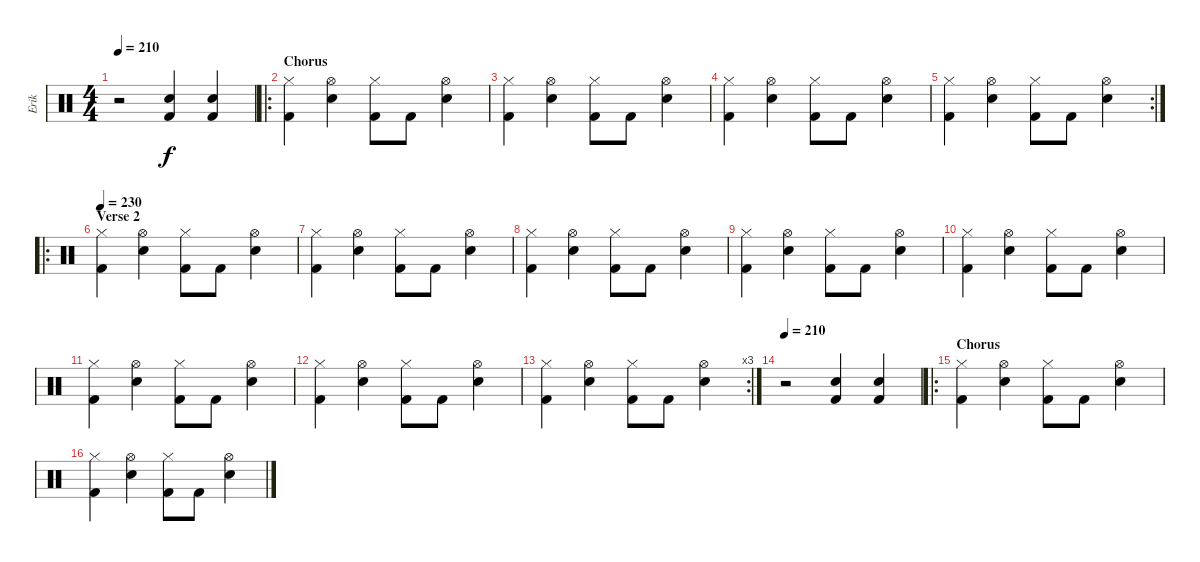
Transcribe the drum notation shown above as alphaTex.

\track ("Erik" "Erik") {instrument percussion}
\staff {score}
\articulation defaults
\ts (4 4)
\tempo 210
\clef neutral
\ks c
r.2{dy f} ("Snare (hit) 2" "Kick (hit) 2").4 ("Snare (hit) 2" "Kick (hit) 2").4 |
\ro
\section ("" "Chorus")
("Hi-Hat (closed)" "Kick (hit) 2").4 ("Hi-Hat (open)" "Snare (hit) 2").4 ("Hi-Hat (closed)" "Kick (hit) 2").8 "Kick (hit) 2".8 ("Hi-Hat (open)" "Snare (hit) 2").4 |
("Hi-Hat (closed)" "Kick (hit) 2").4 ("Hi-Hat (open)" "Snare (hit) 2").4 ("Hi-Hat (closed)" "Kick (hit) 2").8 "Kick (hit) 2".8 ("Hi-Hat (open)" "Snare (hit) 2").4 |
("Hi-Hat (closed)" "Kick (hit) 2").4 ("Hi-Hat (open)" "Snare (hit) 2").4 ("Hi-Hat (closed)" "Kick (hit) 2").8 "Kick (hit) 2".8 ("Hi-Hat (open)" "Snare (hit) 2").4 |
\rc 2
("Hi-Hat (closed)" "Kick (hit) 2").4 ("Hi-Hat (open)" "Snare (hit) 2").4 ("Hi-Hat (closed)" "Kick (hit) 2").8 "Kick (hit) 2".8 ("Hi-Hat (open)" "Snare (hit) 2").4 |
\ro
\section ("" "Verse 2")
\tempo 230
("Hi-Hat (closed)" "Kick (hit) 2").4 ("Hi-Hat (open)" "Snare (hit) 2").4 ("Hi-Hat (closed)" "Kick (hit) 2").8 "Kick (hit) 2".8 ("Hi-Hat (open)" "Snare (hit) 2").4 |
("Hi-Hat (closed)" "Kick (hit) 2").4 ("Hi-Hat (open)" "Snare (hit) 2").4 ("Hi-Hat (closed)" "Kick (hit) 2").8 "Kick (hit) 2".8 ("Hi-Hat (open)" "Snare (hit) 2").4 |
("Hi-Hat (closed)" "Kick (hit) 2").4 ("Hi-Hat (open)" "Snare (hit) 2").4 ("Hi-Hat (closed)" "Kick (hit) 2").8 "Kick (hit) 2".8 ("Hi-Hat (open)" "Snare (hit) 2").4 |
("Hi-Hat (closed)" "Kick (hit) 2").4 ("Hi-Hat (open)" "Snare (hit) 2").4 ("Hi-Hat (closed)" "Kick (hit) 2").8 "Kick (hit) 2".8 ("Hi-Hat (open)" "Snare (hit) 2").4 |
("Hi-Hat (closed)" "Kick (hit) 2").4 ("Hi-Hat (open)" "Snare (hit) 2").4 ("Hi-Hat (closed)" "Kick (hit) 2").8 "Kick (hit) 2".8 ("Hi-Hat (open)" "Snare (hit) 2").4 |
("Hi-Hat (closed)" "Kick (hit) 2").4 ("Hi-Hat (open)" "Snare (hit) 2").4 ("Hi-Hat (closed)" "Kick (hit) 2").8 "Kick (hit) 2".8 ("Hi-Hat (open)" "Snare (hit) 2").4 |
("Hi-Hat (closed)" "Kick (hit) 2").4 ("Hi-Hat (open)" "Snare (hit) 2").4 ("Hi-Hat (closed)" "Kick (hit) 2").8 "Kick (hit) 2".8 ("Hi-Hat (open)" "Snare (hit) 2").4 |
\rc 3
("Hi-Hat (closed)" "Kick (hit) 2").4 ("Hi-Hat (open)" "Snare (hit) 2").4 ("Hi-Hat (closed)" "Kick (hit) 2").8 "Kick (hit) 2".8 ("Hi-Hat (open)" "Snare (hit) 2").4 |
\tempo 210
r.2 ("Kick (hit) 2" "Snare (hit) 2").4 ("Kick (hit) 2" "Snare (hit) 2").4 |
\ro
\section ("" "Chorus")
("Hi-Hat (closed)" "Kick (hit) 2").4 ("Hi-Hat (open)" "Snare (hit) 2").4 ("Hi-Hat (closed)" "Kick (hit) 2").8 "Kick (hit) 2".8 ("Hi-Hat (open)" "Snare (hit) 2").4 |
("Hi-Hat (closed)" "Kick (hit) 2").4 ("Hi-Hat (open)" "Snare (hit) 2").4 ("Hi-Hat (closed)" "Kick (hit) 2").8 "Kick (hit) 2".8 ("Hi-Hat (open)" "Snare (hit) 2").4
